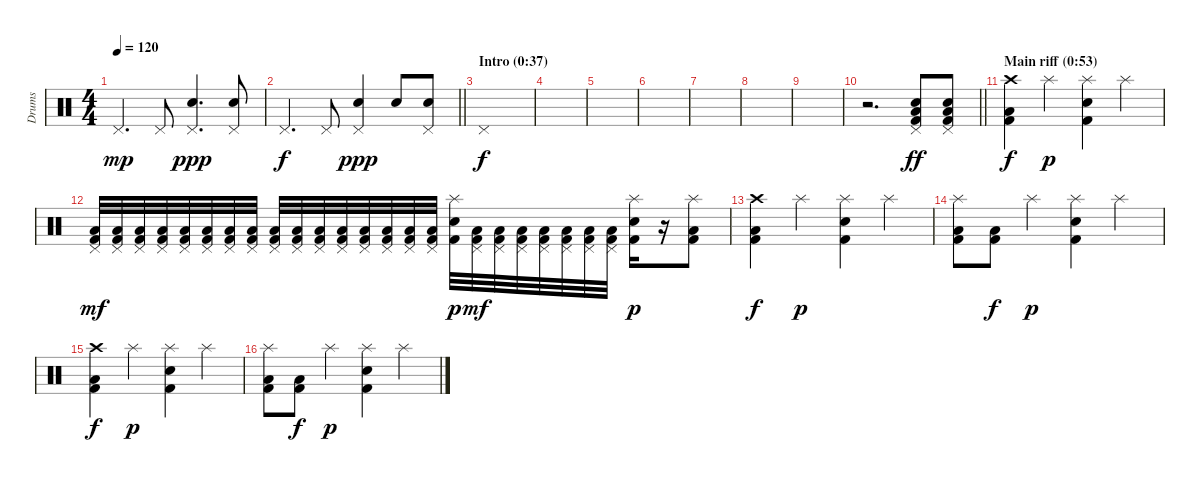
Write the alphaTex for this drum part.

\track ("Drums" "Drums") {instrument percussion}
\staff {score}
\articulation defaults
\ts (4 4)
\tempo 120
\clef neutral
\ks c "Pedal Hi-Hat (hit)".4{d dy mp} "Pedal Hi-Hat (hit)".8
("Pedal Hi-Hat (hit)" "Snare (hit) 2").4{d dy ppp} ("Pedal Hi-Hat (hit)" "Snare (hit) 2").8 |
\barLineRight lightlight "Pedal Hi-Hat (hit)".4{d dy f} "Pedal Hi-Hat (hit)".8
("Pedal Hi-Hat (hit)" "Snare (hit) 2").4{dy ppp} "Snare (hit) 2".8 ("Pedal Hi-Hat (hit)" "Snare (hit) 2").8 |
\section ("" "Intro (0:37)")
"Pedal Hi-Hat (hit)".1{dy f} |
|
|
|
|
|
|
\barLineRight lightlight
r.2{d} ("Pedal Hi-Hat (hit)" "Snare (hit) 2" "Low Floor Tom (hit)" "Kick (hit) 2").8{dy ff volume 12} ("Pedal Hi-Hat (hit)" "Snare (hit) 2" "Low Floor Tom (hit)" "Kick (hit) 2").8 |
\section ("" "Main riff (0:53)")
("Crash high (hit)" "Low Floor Tom (hit)" "Kick (hit) 2").4{dy f} "Splash (hit)".4{dy p} ("Splash (hit)" "Snare (hit) 2" "Kick (hit) 2").4 "Splash (hit)".4 |
("Pedal Hi-Hat (hit)" "Low Floor Tom (hit)" "Kick (hit) 2").32{dy mf} ("Pedal Hi-Hat (hit)" "Low Floor Tom (hit)" "Kick (hit) 2").32 ("Pedal Hi-Hat (hit)" "Low Floor Tom (hit)" "Kick (hit) 2").32 ("Pedal Hi-Hat (hit)" "Low Floor Tom (hit)" "Kick (hit) 2").32 ("Pedal Hi-Hat (hit)" "Low Floor Tom (hit)" "Kick (hit) 2").32 ("Pedal Hi-Hat (hit)" "Low Floor Tom (hit)" "Kick (hit) 2").32 ("Pedal Hi-Hat (hit)" "Low Floor Tom (hit)" "Kick (hit) 2").32 ("Pedal Hi-Hat (hit)" "Low Floor Tom (hit)" "Kick (hit) 2").32 ("Pedal Hi-Hat (hit)" "Low Floor Tom (hit)" "Kick (hit) 2").32 ("Pedal Hi-Hat (hit)" "Low Floor Tom (hit)" "Kick (hit) 2").32 ("Pedal Hi-Hat (hit)" "Low Floor Tom (hit)" "Kick (hit) 2").32 ("Pedal Hi-Hat (hit)" "Low Floor Tom (hit)" "Kick (hit) 2").32 ("Pedal Hi-Hat (hit)" "Low Floor Tom (hit)" "Kick (hit) 2").32 ("Pedal Hi-Hat (hit)" "Low Floor Tom (hit)" "Kick (hit) 2").32 ("Pedal Hi-Hat (hit)" "Low Floor Tom (hit)" "Kick (hit) 2").32 ("Pedal Hi-Hat (hit)" "Low Floor Tom (hit)" "Kick (hit) 2").32 ("Splash (hit)" "Snare (hit) 2" "Kick (hit) 2").32{dy p} ("Pedal Hi-Hat (hit)" "Low Floor Tom (hit)" "Kick (hit) 2").32{dy mf} ("Pedal Hi-Hat (hit)" "Low Floor Tom (hit)" "Kick (hit) 2").32 ("Pedal Hi-Hat (hit)" "Low Floor Tom (hit)" "Kick (hit) 2").32 ("Pedal Hi-Hat (hit)" "Low Floor Tom (hit)" "Kick (hit) 2").32 ("Pedal Hi-Hat (hit)" "Low Floor Tom (hit)" "Kick (hit) 2").32 ("Pedal Hi-Hat (hit)" "Low Floor Tom (hit)" "Kick (hit) 2").32 ("Pedal Hi-Hat (hit)" "Low Floor Tom (hit)" "Kick (hit) 2").32 ("Splash (hit)" "Snare (hit) 2" "Kick (hit) 2").16{dy p} r.16 ("Splash (hit)" "Low Floor Tom (hit)" "Kick (hit) 2").8 |
("Crash high (hit)" "Low Floor Tom (hit)" "Kick (hit) 2").4{dy f} "Splash (hit)".4{dy p} ("Splash (hit)" "Snare (hit) 2" "Kick (hit) 2").4 "Splash (hit)".4 |
("Splash (hit)" "Low Floor Tom (hit)" "Kick (hit) 2").8 ("Low Floor Tom (hit)" "Kick (hit) 2").8{dy f} "Splash (hit)".4{dy p} ("Splash (hit)" "Snare (hit) 2" "Kick (hit) 2").4 "Splash (hit)".4 |
("Crash high (hit)" "Low Floor Tom (hit)" "Kick (hit) 2").4{dy f} "Splash (hit)".4{dy p} ("Splash (hit)" "Snare (hit) 2" "Kick (hit) 2").4 "Splash (hit)".4 |
("Splash (hit)" "Low Floor Tom (hit)" "Kick (hit) 2").8 ("Low Floor Tom (hit)" "Kick (hit) 2").8{dy f} "Splash (hit)".4{dy p} ("Splash (hit)" "Snare (hit) 2" "Kick (hit) 2").4 "Splash (hit)".4
